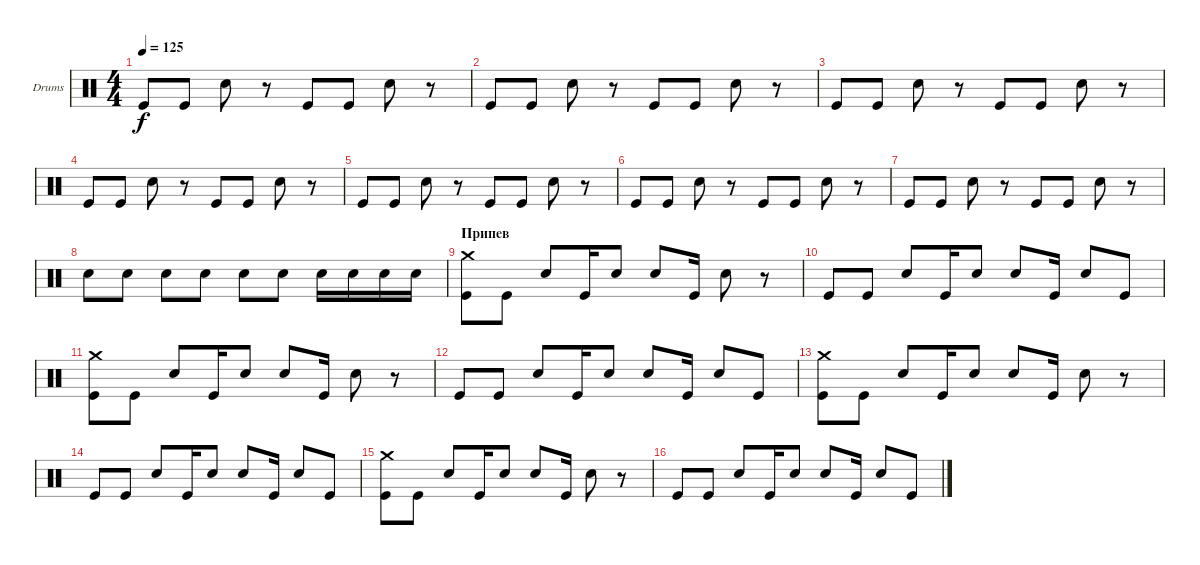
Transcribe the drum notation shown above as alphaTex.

\defaultSystemsLayout 4
\bracketExtendMode groupsimilarinstruments
\firstSystemTrackNameOrientation horizontal
\otherSystemsTrackNameOrientation horizontal
\track ("Drumkit" "Drums") {instrument percussion}
\staff {score}
\articulation defaults
\ts (4 4)
\tempo 125
\clef neutral
\ks c "Kick (hit)".8{dy f} "Kick (hit)".8 "Snare (hit) 2".8
r.8 "Kick (hit)".8 "Kick (hit)".8 "Snare (hit) 2".8 r.8 |
"Kick (hit)".8 "Kick (hit)".8 "Snare (hit) 2".8 r.8 "Kick (hit)".8 "Kick (hit)".8 "Snare (hit) 2".8 r.8 |
"Kick (hit)".8 "Kick (hit)".8 "Snare (hit) 2".8 r.8 "Kick (hit)".8 "Kick (hit)".8 "Snare (hit) 2".8 r.8 |
"Kick (hit)".8 "Kick (hit)".8 "Snare (hit) 2".8 r.8 "Kick (hit)".8 "Kick (hit)".8 "Snare (hit) 2".8 r.8 |
"Kick (hit)".8 "Kick (hit)".8 "Snare (hit) 2".8 r.8 "Kick (hit)".8 "Kick (hit)".8 "Snare (hit) 2".8 r.8 |
"Kick (hit)".8 "Kick (hit)".8 "Snare (hit) 2".8 r.8 "Kick (hit)".8 "Kick (hit)".8 "Snare (hit) 2".8 r.8 |
"Kick (hit)".8 "Kick (hit)".8 "Snare (hit) 2".8 r.8 "Kick (hit)".8 "Kick (hit)".8 "Snare (hit) 2".8 r.8 |
"Snare (hit) 2".8 "Snare (hit) 2".8 "Snare (hit) 2".8 "Snare (hit) 2".8 "Snare (hit) 2".8 "Snare (hit) 2".8 "Snare (hit) 2".16 "Snare (hit) 2".16 "Snare (hit) 2".16 "Snare (hit) 2".16 |
\section ("" "Припев")
("Crash medium (hit)" "Kick (hit)").8 "Kick (hit)".8 "Snare (hit) 2".8 "Kick (hit)".16 "Snare (hit) 2".8 "Snare (hit) 2".8 "Kick (hit)".16 "Snare (hit) 2".8 r.8 |
"Kick (hit)".8 "Kick (hit)".8 "Snare (hit) 2".8 "Kick (hit)".16 "Snare (hit) 2".8 "Snare (hit) 2".8 "Kick (hit)".16 "Snare (hit) 2".8 "Kick (hit)".8 |
("Crash medium (hit)" "Kick (hit)").8 "Kick (hit)".8 "Snare (hit) 2".8 "Kick (hit)".16 "Snare (hit) 2".8 "Snare (hit) 2".8 "Kick (hit)".16 "Snare (hit) 2".8 r.8 |
"Kick (hit)".8 "Kick (hit)".8 "Snare (hit) 2".8 "Kick (hit)".16 "Snare (hit) 2".8 "Snare (hit) 2".8 "Kick (hit)".16 "Snare (hit) 2".8 "Kick (hit)".8 |
("Crash medium (hit)" "Kick (hit)").8 "Kick (hit)".8 "Snare (hit) 2".8 "Kick (hit)".16 "Snare (hit) 2".8 "Snare (hit) 2".8 "Kick (hit)".16 "Snare (hit) 2".8 r.8 |
"Kick (hit)".8 "Kick (hit)".8 "Snare (hit) 2".8 "Kick (hit)".16 "Snare (hit) 2".8 "Snare (hit) 2".8 "Kick (hit)".16 "Snare (hit) 2".8 "Kick (hit)".8 |
("Crash medium (hit)" "Kick (hit)").8 "Kick (hit)".8 "Snare (hit) 2".8 "Kick (hit)".16 "Snare (hit) 2".8 "Snare (hit) 2".8 "Kick (hit)".16 "Snare (hit) 2".8 r.8 |
"Kick (hit)".8 "Kick (hit)".8 "Snare (hit) 2".8 "Kick (hit)".16 "Snare (hit) 2".8 "Snare (hit) 2".8 "Kick (hit)".16 "Snare (hit) 2".8 "Kick (hit)".8
